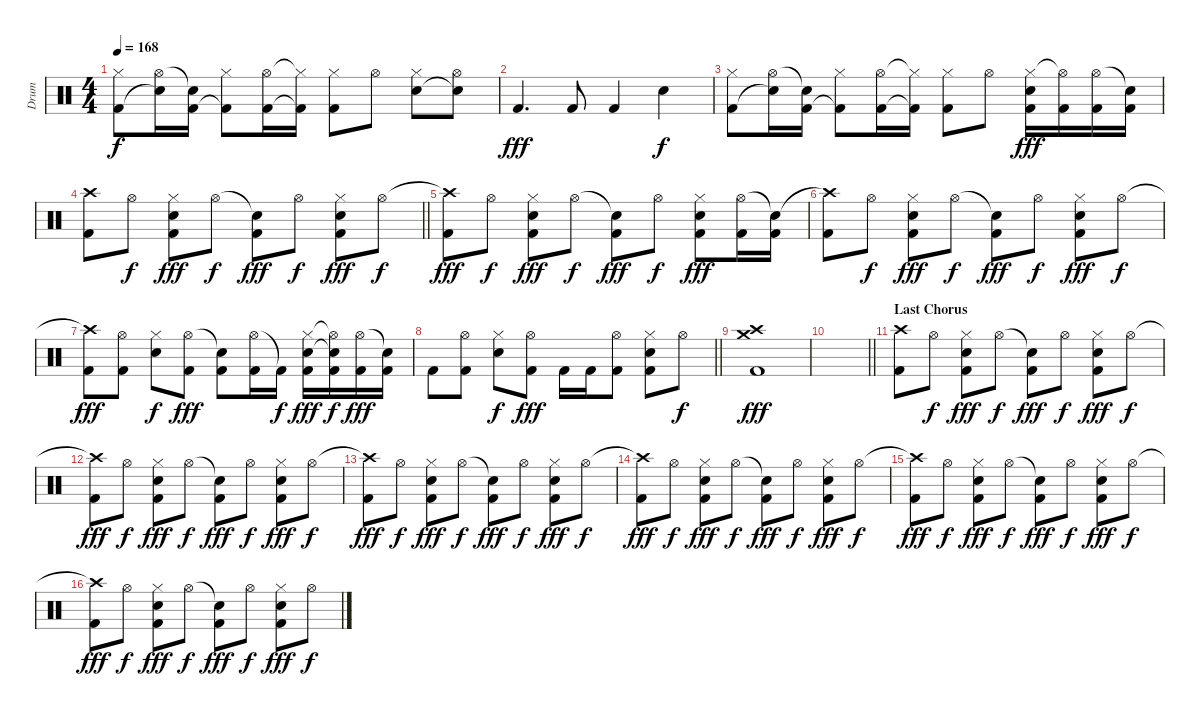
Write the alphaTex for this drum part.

\track ("Drum" "Drum") {instrument percussion}
\staff {score}
\articulation defaults
\ts (4 4)
\tempo 168
\clef neutral
\ks c
("Hi-Hat (closed)" "Kick (hit) 2").8{dy f} ("Hi-Hat (open)" "Snare (hit)"{t}).16 ("Snare (hit)"{t} "Kick (hit) 2").16 ("Hi-Hat (closed)" "Kick (hit) 2"{t}).8 ("Hi-Hat (open)" "Kick (hit) 2").16 ("Hi-Hat (closed)"{t} "Kick (hit) 2"{t}).16 ("Hi-Hat (closed)" "Kick (hit) 2").8 "Hi-Hat (open)".8 ("Hi-Hat (closed)" "Snare (hit) 2").8 ("Hi-Hat (open)" "Snare (hit)"{t}).8 |
"Kick (hit) 2".4{d dy fff} "Kick (hit) 2".8 "Kick (hit) 2".4 "Snare (hit) 2".4{dy f} |
("Hi-Hat (closed)" "Kick (hit) 2").8 ("Hi-Hat (open)" "Snare (hit)"{t}).16 ("Snare (hit)"{t} "Kick (hit) 2").16 ("Hi-Hat (closed)" "Kick (hit) 2"{t}).8 ("Hi-Hat (open)" "Kick (hit) 2").16 ("Hi-Hat (closed)"{t} "Kick (hit) 2"{t}).16 ("Hi-Hat (closed)" "Kick (hit) 2").8 "Hi-Hat (open)".8 ("Hi-Hat (closed)" "Snare (hit) 2" "Kick (hit) 2").16{dy fff} ("Hi-Hat (open)"{t} "Kick (hit) 2").16 ("Hi-Hat (open)" "Kick (hit) 2").16 ("Snare (hit)"{t} "Kick (hit) 2").16 |
\barLineRight lightlight
("Crash high (hit)" "Kick (hit) 2").8 "Hi-Hat (open)".8{dy f} ("Hi-Hat (closed)" "Snare (hit) 2" "Kick (hit) 2").8{dy fff} "Hi-Hat (open)".8{dy f} ("Snare (hit)"{t} "Kick (hit) 2").8{dy fff} "Hi-Hat (open)".8{dy f} ("Hi-Hat (closed)" "Snare (hit) 2" "Kick (hit) 2").8{dy fff} "Hi-Hat (open)".8{dy f} |
("Crash high (hit)"{t} "Kick (hit) 2").8{dy fff} "Hi-Hat (open)".8{dy f} ("Hi-Hat (closed)" "Snare (hit) 2" "Kick (hit) 2").8{dy fff} "Hi-Hat (open)".8{dy f} ("Snare (hit)"{t} "Kick (hit) 2").8{dy fff} "Hi-Hat (open)".8{dy f} ("Hi-Hat (closed)" "Snare (hit) 2" "Kick (hit) 2").8{dy fff} ("Hi-Hat (open)" "Kick (hit) 2").16 ("Snare (hit)"{t} "Kick (hit) 2").16 |
("Crash high (hit)"{t} "Kick (hit) 2").8 "Hi-Hat (open)".8{dy f} ("Hi-Hat (closed)" "Snare (hit) 2" "Kick (hit) 2").8{dy fff} "Hi-Hat (open)".8{dy f} ("Snare (hit)"{t} "Kick (hit) 2").8{dy fff} "Hi-Hat (open)".8{dy f} ("Hi-Hat (closed)" "Snare (hit) 2" "Kick (hit) 2").8{dy fff} "Hi-Hat (open)".8{dy f} |
("Crash high (hit)"{t} "Kick (hit) 2").8{dy fff} ("Hi-Hat (open)" "Kick (hit) 2").8 ("Hi-Hat (closed)" "Snare (hit) 2").8{dy f} ("Hi-Hat (open)" "Kick (hit) 2").8{dy fff} ("Snare (hit)"{t} "Kick (hit) 2").8 ("Hi-Hat (open)" "Kick (hit) 2").16 "Kick (hit) 2"{t}.16{dy f} ("Hi-Hat (closed)" "Snare (hit) 2" "Kick (hit) 2").16{dy fff} ("Hi-Hat (open)"{t} "Snare (hit)"{t} "Kick (hit) 2").16{dy f} ("Hi-Hat (open)" "Kick (hit) 2").16{dy fff} ("Snare (hit)"{t} "Kick (hit) 2").16 |
\barLineRight lightlight "Kick (hit) 2".8
("Hi-Hat (open)" "Kick (hit) 2").8 ("Hi-Hat (closed)" "Snare (hit) 2").8{dy f} ("Hi-Hat (open)" "Kick (hit) 2").8{dy fff} "Kick (hit) 2".16 "Kick (hit) 2".16 ("Hi-Hat (open)" "Kick (hit) 2").8 ("Hi-Hat (closed)" "Snare (hit) 2" "Kick (hit) 2").8 "Hi-Hat (open)".8{dy f} |
("Crash high (hit)" "Crash medium (hit)" "Kick (hit) 2").1{dy fff} |
\barLineRight lightlight
|
\section ("" "Last Chorus")
("Crash high (hit)" "Kick (hit) 2").8 "Hi-Hat (open)".8{dy f} ("Hi-Hat (closed)" "Snare (hit) 2" "Kick (hit) 2").8{dy fff} "Hi-Hat (open)".8{dy f} ("Snare (hit)"{t} "Kick (hit) 2").8{dy fff} "Hi-Hat (open)".8{dy f} ("Hi-Hat (closed)" "Snare (hit) 2" "Kick (hit) 2").8{dy fff} "Hi-Hat (open)".8{dy f} |
("Crash high (hit)"{t} "Kick (hit) 2").8{dy fff} "Hi-Hat (open)".8{dy f} ("Hi-Hat (closed)" "Snare (hit) 2" "Kick (hit) 2").8{dy fff} "Hi-Hat (open)".8{dy f} ("Snare (hit)"{t} "Kick (hit) 2").8{dy fff} "Hi-Hat (open)".8{dy f} ("Hi-Hat (closed)" "Snare (hit) 2" "Kick (hit) 2").8{dy fff} "Hi-Hat (open)".8{dy f} |
("Crash high (hit)"{t} "Kick (hit) 2").8{dy fff} "Hi-Hat (open)".8{dy f} ("Hi-Hat (closed)" "Snare (hit) 2" "Kick (hit) 2").8{dy fff} "Hi-Hat (open)".8{dy f} ("Snare (hit)"{t} "Kick (hit) 2").8{dy fff} "Hi-Hat (open)".8{dy f} ("Hi-Hat (closed)" "Snare (hit) 2" "Kick (hit) 2").8{dy fff} "Hi-Hat (open)".8{dy f} |
("Crash high (hit)"{t} "Kick (hit) 2").8{dy fff} "Hi-Hat (open)".8{dy f} ("Hi-Hat (closed)" "Snare (hit) 2" "Kick (hit) 2").8{dy fff} "Hi-Hat (open)".8{dy f} ("Snare (hit)"{t} "Kick (hit) 2").8{dy fff} "Hi-Hat (open)".8{dy f} ("Hi-Hat (closed)" "Snare (hit) 2" "Kick (hit) 2").8{dy fff} "Hi-Hat (open)".8{dy f} |
("Crash high (hit)"{t} "Kick (hit) 2").8{dy fff} "Hi-Hat (open)".8{dy f} ("Hi-Hat (closed)" "Snare (hit) 2" "Kick (hit) 2").8{dy fff} "Hi-Hat (open)".8{dy f} ("Snare (hit)"{t} "Kick (hit) 2").8{dy fff} "Hi-Hat (open)".8{dy f} ("Hi-Hat (closed)" "Snare (hit) 2" "Kick (hit) 2").8{dy fff} "Hi-Hat (open)".8{dy f} |
("Crash high (hit)"{t} "Kick (hit) 2").8{dy fff} "Hi-Hat (open)".8{dy f} ("Hi-Hat (closed)" "Snare (hit) 2" "Kick (hit) 2").8{dy fff} "Hi-Hat (open)".8{dy f} ("Snare (hit)"{t} "Kick (hit) 2").8{dy fff} "Hi-Hat (open)".8{dy f} ("Hi-Hat (closed)" "Snare (hit) 2" "Kick (hit) 2").8{dy fff} "Hi-Hat (open)".8{dy f}
